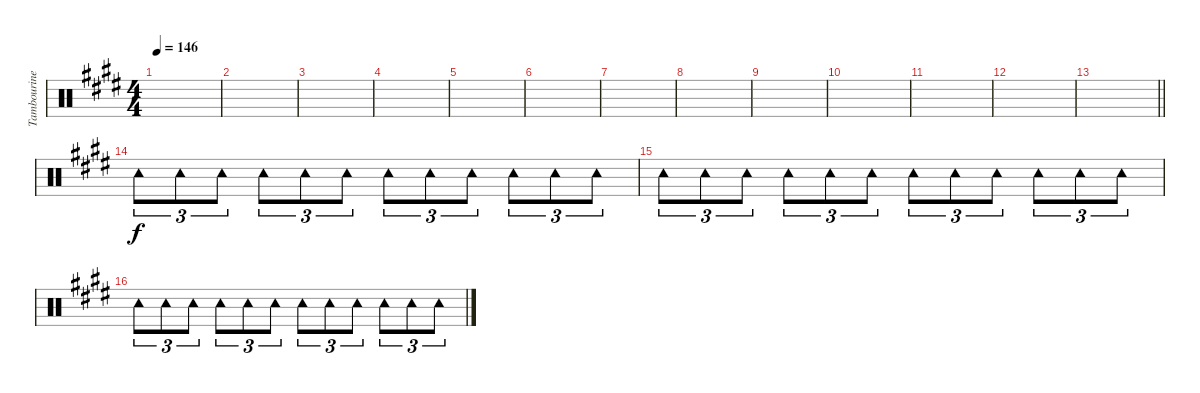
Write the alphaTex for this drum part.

\track ("Tambourine" "Tambourine") {instrument percussion}
\staff {score}
\articulation defaults
\ts (4 4)
\tempo 146
\clef neutral
\ks c#minor
|
|
|
|
|
|
|
|
|
|
|
|
\barLineRight lightlight
|
"Tambourine (hit)".8{tu (3 2)} "Tambourine (hit)".8{tu (3 2)} "Tambourine (hit)".8{tu (3 2)} "Tambourine (hit)".8{tu (3 2)} "Tambourine (hit)".8{tu (3 2)} "Tambourine (hit)".8{tu (3 2)} "Tambourine (hit)".8{tu (3 2)} "Tambourine (hit)".8{tu (3 2)} "Tambourine (hit)".8{tu (3 2)} "Tambourine (hit)".8{tu (3 2)} "Tambourine (hit)".8{tu (3 2)} "Tambourine (hit)".8{tu (3 2)} |
"Tambourine (hit)".8{tu (3 2)} "Tambourine (hit)".8{tu (3 2)} "Tambourine (hit)".8{tu (3 2)} "Tambourine (hit)".8{tu (3 2)} "Tambourine (hit)".8{tu (3 2)} "Tambourine (hit)".8{tu (3 2)} "Tambourine (hit)".8{tu (3 2)} "Tambourine (hit)".8{tu (3 2)} "Tambourine (hit)".8{tu (3 2)} "Tambourine (hit)".8{tu (3 2)} "Tambourine (hit)".8{tu (3 2)} "Tambourine (hit)".8{tu (3 2)} |
"Tambourine (hit)".8{tu (3 2)} "Tambourine (hit)".8{tu (3 2)} "Tambourine (hit)".8{tu (3 2)} "Tambourine (hit)".8{tu (3 2)} "Tambourine (hit)".8{tu (3 2)} "Tambourine (hit)".8{tu (3 2)} "Tambourine (hit)".8{tu (3 2)} "Tambourine (hit)".8{tu (3 2)} "Tambourine (hit)".8{tu (3 2)} "Tambourine (hit)".8{tu (3 2)} "Tambourine (hit)".8{tu (3 2)} "Tambourine (hit)".8{tu (3 2)}
